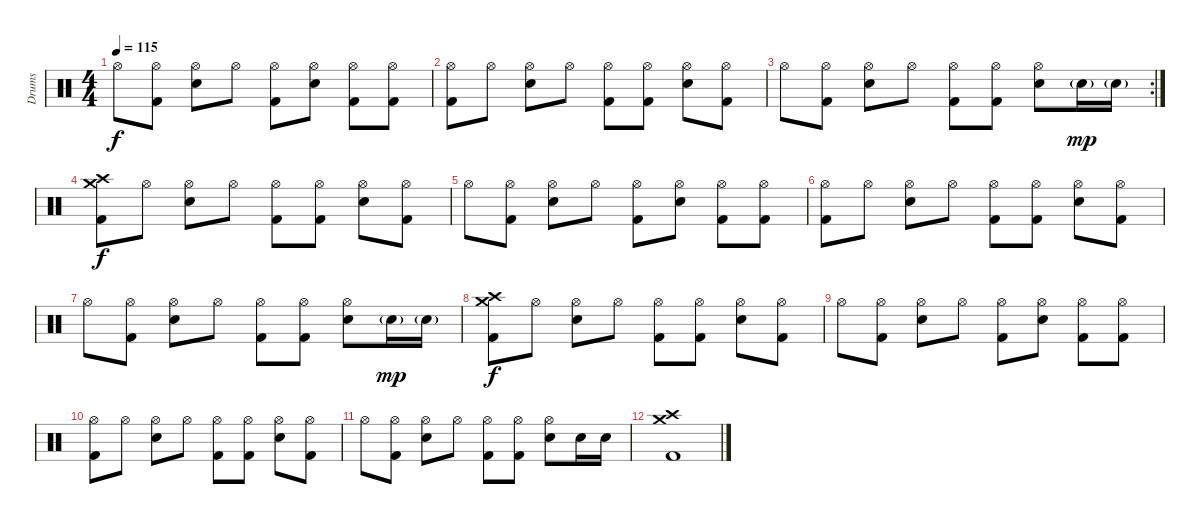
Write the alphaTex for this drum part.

\track ("Drums" "Drums") {instrument percussion}
\staff {score}
\articulation defaults
\ts (4 4)
\tempo 115
\clef neutral
\ks c "Hi-Hat (open)".8{dy f}
("Hi-Hat (open)" "Kick (hit) 2").8 ("Hi-Hat (open)" "Electric Snare (hit)").8 "Hi-Hat (open)".8 ("Hi-Hat (open)" "Kick (hit) 2").8 ("Hi-Hat (open)" "Electric Snare (hit)").8 ("Hi-Hat (open)" "Kick (hit) 2").8 ("Hi-Hat (open)" "Kick (hit) 2").8 |
("Hi-Hat (open)" "Kick (hit) 2").8 "Hi-Hat (open)".8 ("Hi-Hat (open)" "Electric Snare (hit)").8 "Hi-Hat (open)".8 ("Hi-Hat (open)" "Kick (hit) 2").8 ("Hi-Hat (open)" "Kick (hit) 2").8 ("Hi-Hat (open)" "Electric Snare (hit)").8 ("Hi-Hat (open)" "Kick (hit) 2").8 |
\rc 2 "Hi-Hat (open)".8
("Hi-Hat (open)" "Kick (hit) 2").8 ("Hi-Hat (open)" "Electric Snare (hit)").8 "Hi-Hat (open)".8 ("Hi-Hat (open)" "Kick (hit) 2").8 ("Hi-Hat (open)" "Kick (hit) 2").8 ("Hi-Hat (open)" "Electric Snare (hit)").8 "Electric Snare (hit)"{g}.16{dy mp} "Electric Snare (hit)"{g}.16 |
("Crash high (hit)" "Crash medium (hit)" "Kick (hit) 2").8{dy f} "Hi-Hat (open)".8 ("Hi-Hat (open)" "Electric Snare (hit)").8 "Hi-Hat (open)".8 ("Hi-Hat (open)" "Kick (hit) 2").8 ("Hi-Hat (open)" "Kick (hit) 2").8 ("Hi-Hat (open)" "Electric Snare (hit)").8 ("Hi-Hat (open)" "Kick (hit) 2").8 |
"Hi-Hat (open)".8 ("Hi-Hat (open)" "Kick (hit) 2").8 ("Hi-Hat (open)" "Electric Snare (hit)").8 "Hi-Hat (open)".8 ("Hi-Hat (open)" "Kick (hit) 2").8 ("Hi-Hat (open)" "Electric Snare (hit)").8 ("Hi-Hat (open)" "Kick (hit) 2").8 ("Hi-Hat (open)" "Kick (hit) 2").8 |
("Hi-Hat (open)" "Kick (hit) 2").8 "Hi-Hat (open)".8 ("Hi-Hat (open)" "Electric Snare (hit)").8 "Hi-Hat (open)".8 ("Hi-Hat (open)" "Kick (hit) 2").8 ("Hi-Hat (open)" "Kick (hit) 2").8 ("Hi-Hat (open)" "Electric Snare (hit)").8 ("Hi-Hat (open)" "Kick (hit) 2").8 |
"Hi-Hat (open)".8 ("Hi-Hat (open)" "Kick (hit) 2").8 ("Hi-Hat (open)" "Electric Snare (hit)").8 "Hi-Hat (open)".8 ("Hi-Hat (open)" "Kick (hit) 2").8 ("Hi-Hat (open)" "Kick (hit) 2").8 ("Hi-Hat (open)" "Electric Snare (hit)").8 "Electric Snare (hit)"{g}.16{dy mp} "Electric Snare (hit)"{g}.16 |
("Crash high (hit)" "Crash medium (hit)" "Kick (hit) 2").8{dy f} "Hi-Hat (open)".8 ("Hi-Hat (open)" "Electric Snare (hit)").8 "Hi-Hat (open)".8 ("Hi-Hat (open)" "Kick (hit) 2").8 ("Hi-Hat (open)" "Kick (hit) 2").8 ("Hi-Hat (open)" "Electric Snare (hit)").8 ("Hi-Hat (open)" "Kick (hit) 2").8 |
"Hi-Hat (open)".8 ("Hi-Hat (open)" "Kick (hit) 2").8 ("Hi-Hat (open)" "Electric Snare (hit)").8 "Hi-Hat (open)".8 ("Hi-Hat (open)" "Kick (hit) 2").8 ("Hi-Hat (open)" "Electric Snare (hit)").8 ("Hi-Hat (open)" "Kick (hit) 2").8 ("Hi-Hat (open)" "Kick (hit) 2").8 |
("Hi-Hat (open)" "Kick (hit) 2").8 "Hi-Hat (open)".8 ("Hi-Hat (open)" "Electric Snare (hit)").8 "Hi-Hat (open)".8 ("Hi-Hat (open)" "Kick (hit) 2").8 ("Hi-Hat (open)" "Kick (hit) 2").8 ("Hi-Hat (open)" "Electric Snare (hit)").8 ("Hi-Hat (open)" "Kick (hit) 2").8 |
"Hi-Hat (open)".8 ("Hi-Hat (open)" "Kick (hit) 2").8 ("Hi-Hat (open)" "Electric Snare (hit)").8 "Hi-Hat (open)".8 ("Hi-Hat (open)" "Kick (hit) 2").8 ("Hi-Hat (open)" "Kick (hit) 2").8 ("Hi-Hat (open)" "Electric Snare (hit)").8 "Electric Snare (hit)".16 "Electric Snare (hit)".16 |
("Crash high (hit)" "Crash medium (hit)" "Kick (hit) 2").1
